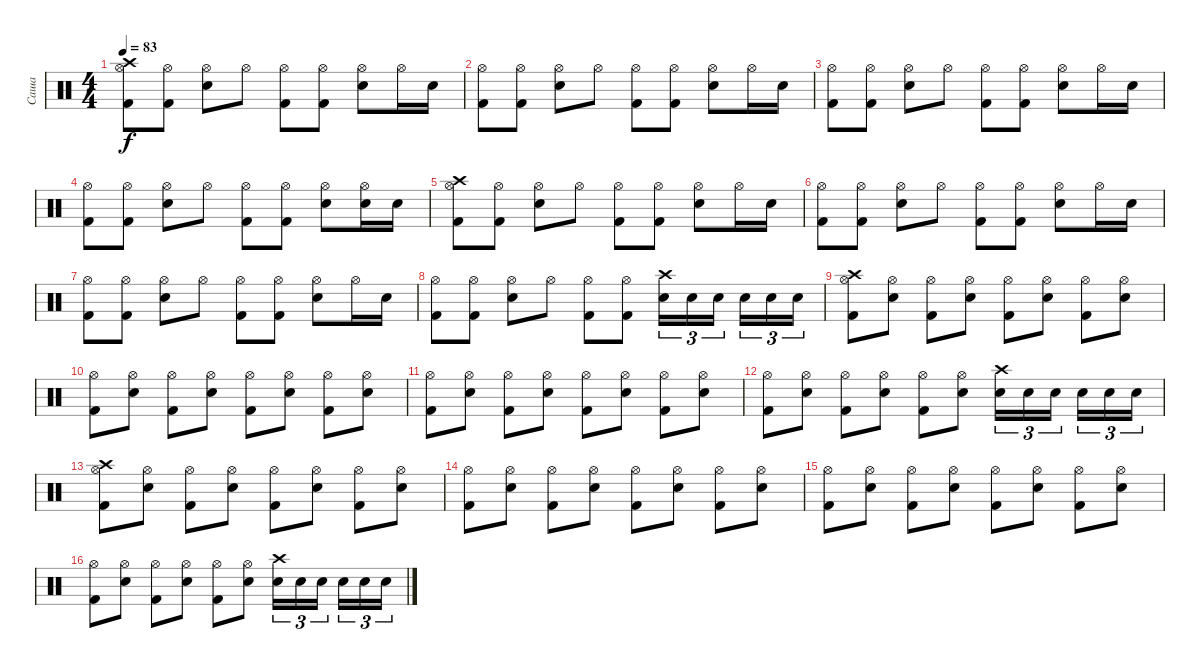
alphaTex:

\track ("Саша" "Саша") {instrument percussion}
\staff {score}
\articulation defaults
\ts (4 4)
\tempo 83
\clef neutral
\ks c
("Kick (hit) 2" "Crash high (hit)" "Hi-Hat (open)").8{dy f} ("Kick (hit) 2" "Hi-Hat (open)").8 ("Snare (hit) 2" "Hi-Hat (open)").8 "Hi-Hat (open)".8 ("Kick (hit) 2" "Hi-Hat (open)").8 ("Kick (hit) 2" "Hi-Hat (open)").8 ("Snare (hit) 2" "Hi-Hat (open)").8 "Hi-Hat (open)".16 "Snare (hit) 2".16 |
("Kick (hit) 2" "Hi-Hat (open)").8 ("Kick (hit) 2" "Hi-Hat (open)").8 ("Snare (hit) 2" "Hi-Hat (open)").8 "Hi-Hat (open)".8 ("Kick (hit) 2" "Hi-Hat (open)").8 ("Kick (hit) 2" "Hi-Hat (open)").8 ("Snare (hit) 2" "Hi-Hat (open)").8 "Hi-Hat (open)".16 "Snare (hit) 2".16 |
("Kick (hit) 2" "Hi-Hat (open)").8 ("Kick (hit) 2" "Hi-Hat (open)").8 ("Snare (hit) 2" "Hi-Hat (open)").8 "Hi-Hat (open)".8 ("Kick (hit) 2" "Hi-Hat (open)").8 ("Kick (hit) 2" "Hi-Hat (open)").8 ("Snare (hit) 2" "Hi-Hat (open)").8 "Hi-Hat (open)".16 "Snare (hit) 2".16 |
("Kick (hit) 2" "Hi-Hat (open)").8 ("Kick (hit) 2" "Hi-Hat (open)").8 ("Snare (hit) 2" "Hi-Hat (open)").8 "Hi-Hat (open)".8 ("Kick (hit) 2" "Hi-Hat (open)").8 ("Kick (hit) 2" "Hi-Hat (open)").8 ("Snare (hit) 2" "Hi-Hat (open)").8 ("Hi-Hat (open)" "Snare (hit) 2").16 "Snare (hit) 2".16 |
("Kick (hit) 2" "Crash high (hit)" "Hi-Hat (open)").8 ("Kick (hit) 2" "Hi-Hat (open)").8 ("Snare (hit) 2" "Hi-Hat (open)").8 "Hi-Hat (open)".8 ("Kick (hit) 2" "Hi-Hat (open)").8 ("Kick (hit) 2" "Hi-Hat (open)").8 ("Snare (hit) 2" "Hi-Hat (open)").8 "Hi-Hat (open)".16 "Snare (hit) 2".16 |
("Kick (hit) 2" "Hi-Hat (open)").8 ("Kick (hit) 2" "Hi-Hat (open)").8 ("Snare (hit) 2" "Hi-Hat (open)").8 "Hi-Hat (open)".8 ("Kick (hit) 2" "Hi-Hat (open)").8 ("Kick (hit) 2" "Hi-Hat (open)").8 ("Snare (hit) 2" "Hi-Hat (open)").8 "Hi-Hat (open)".16 "Snare (hit) 2".16 |
("Kick (hit) 2" "Hi-Hat (open)").8 ("Kick (hit) 2" "Hi-Hat (open)").8 ("Snare (hit) 2" "Hi-Hat (open)").8 "Hi-Hat (open)".8 ("Kick (hit) 2" "Hi-Hat (open)").8 ("Kick (hit) 2" "Hi-Hat (open)").8 ("Snare (hit) 2" "Hi-Hat (open)").8 "Hi-Hat (open)".16 "Snare (hit) 2".16 |
("Kick (hit) 2" "Hi-Hat (open)").8 ("Kick (hit) 2" "Hi-Hat (open)").8 ("Snare (hit) 2" "Hi-Hat (open)").8 "Hi-Hat (open)".8 ("Kick (hit) 2" "Hi-Hat (open)").8 ("Kick (hit) 2" "Hi-Hat (open)").8 ("Snare (hit) 2" "Crash high (hit)").16{tu (3 2)} "Snare (hit) 2".16{tu (3 2)} "Snare (hit) 2".16{tu (3 2) beam splitsecondary} "Snare (hit) 2".16{tu (3 2)} "Snare (hit) 2".16{tu (3 2)} "Snare (hit) 2".16{tu (3 2)} |
("Kick (hit) 2" "Crash high (hit)" "Hi-Hat (open)").8 ("Snare (hit) 2" "Hi-Hat (open)").8 ("Kick (hit) 2" "Hi-Hat (open)").8 ("Snare (hit) 2" "Hi-Hat (open)").8 ("Kick (hit) 2" "Hi-Hat (open)").8 ("Snare (hit) 2" "Hi-Hat (open)").8 ("Kick (hit) 2" "Hi-Hat (open)").8 ("Snare (hit) 2" "Hi-Hat (open)").8 |
("Kick (hit) 2" "Hi-Hat (open)").8 ("Snare (hit) 2" "Hi-Hat (open)").8 ("Kick (hit) 2" "Hi-Hat (open)").8 ("Snare (hit) 2" "Hi-Hat (open)").8 ("Kick (hit) 2" "Hi-Hat (open)").8 ("Snare (hit) 2" "Hi-Hat (open)").8 ("Kick (hit) 2" "Hi-Hat (open)").8 ("Snare (hit) 2" "Hi-Hat (open)").8 |
("Kick (hit) 2" "Hi-Hat (open)").8 ("Snare (hit) 2" "Hi-Hat (open)").8 ("Kick (hit) 2" "Hi-Hat (open)").8 ("Snare (hit) 2" "Hi-Hat (open)").8 ("Kick (hit) 2" "Hi-Hat (open)").8 ("Snare (hit) 2" "Hi-Hat (open)").8 ("Kick (hit) 2" "Hi-Hat (open)").8 ("Snare (hit) 2" "Hi-Hat (open)").8 |
("Kick (hit) 2" "Hi-Hat (open)").8 ("Snare (hit) 2" "Hi-Hat (open)").8 ("Kick (hit) 2" "Hi-Hat (open)").8 ("Snare (hit) 2" "Hi-Hat (open)").8 ("Kick (hit) 2" "Hi-Hat (open)").8 ("Snare (hit) 2" "Hi-Hat (open)").8 ("Snare (hit) 2" "Crash high (hit)").16{tu (3 2)} "Snare (hit) 2".16{tu (3 2)} "Snare (hit) 2".16{tu (3 2) beam splitsecondary} "Snare (hit) 2".16{tu (3 2)} "Snare (hit) 2".16{tu (3 2)} "Snare (hit) 2".16{tu (3 2)} |
("Kick (hit) 2" "Crash high (hit)" "Hi-Hat (open)").8 ("Snare (hit) 2" "Hi-Hat (open)").8 ("Kick (hit) 2" "Hi-Hat (open)").8 ("Snare (hit) 2" "Hi-Hat (open)").8 ("Kick (hit) 2" "Hi-Hat (open)").8 ("Snare (hit) 2" "Hi-Hat (open)").8 ("Kick (hit) 2" "Hi-Hat (open)").8 ("Snare (hit) 2" "Hi-Hat (open)").8 |
("Kick (hit) 2" "Hi-Hat (open)").8 ("Snare (hit) 2" "Hi-Hat (open)").8 ("Kick (hit) 2" "Hi-Hat (open)").8 ("Snare (hit) 2" "Hi-Hat (open)").8 ("Kick (hit) 2" "Hi-Hat (open)").8 ("Snare (hit) 2" "Hi-Hat (open)").8 ("Kick (hit) 2" "Hi-Hat (open)").8 ("Snare (hit) 2" "Hi-Hat (open)").8 |
("Kick (hit) 2" "Hi-Hat (open)").8 ("Snare (hit) 2" "Hi-Hat (open)").8 ("Kick (hit) 2" "Hi-Hat (open)").8 ("Snare (hit) 2" "Hi-Hat (open)").8 ("Kick (hit) 2" "Hi-Hat (open)").8 ("Snare (hit) 2" "Hi-Hat (open)").8 ("Kick (hit) 2" "Hi-Hat (open)").8 ("Snare (hit) 2" "Hi-Hat (open)").8 |
("Kick (hit) 2" "Hi-Hat (open)").8 ("Snare (hit) 2" "Hi-Hat (open)").8 ("Kick (hit) 2" "Hi-Hat (open)").8 ("Snare (hit) 2" "Hi-Hat (open)").8 ("Kick (hit) 2" "Hi-Hat (open)").8 ("Snare (hit) 2" "Hi-Hat (open)").8 ("Snare (hit) 2" "Crash high (hit)").16{tu (3 2)} "Snare (hit) 2".16{tu (3 2)} "Snare (hit) 2".16{tu (3 2) beam splitsecondary} "Snare (hit) 2".16{tu (3 2)} "Snare (hit) 2".16{tu (3 2)} "Snare (hit) 2".16{tu (3 2)}
